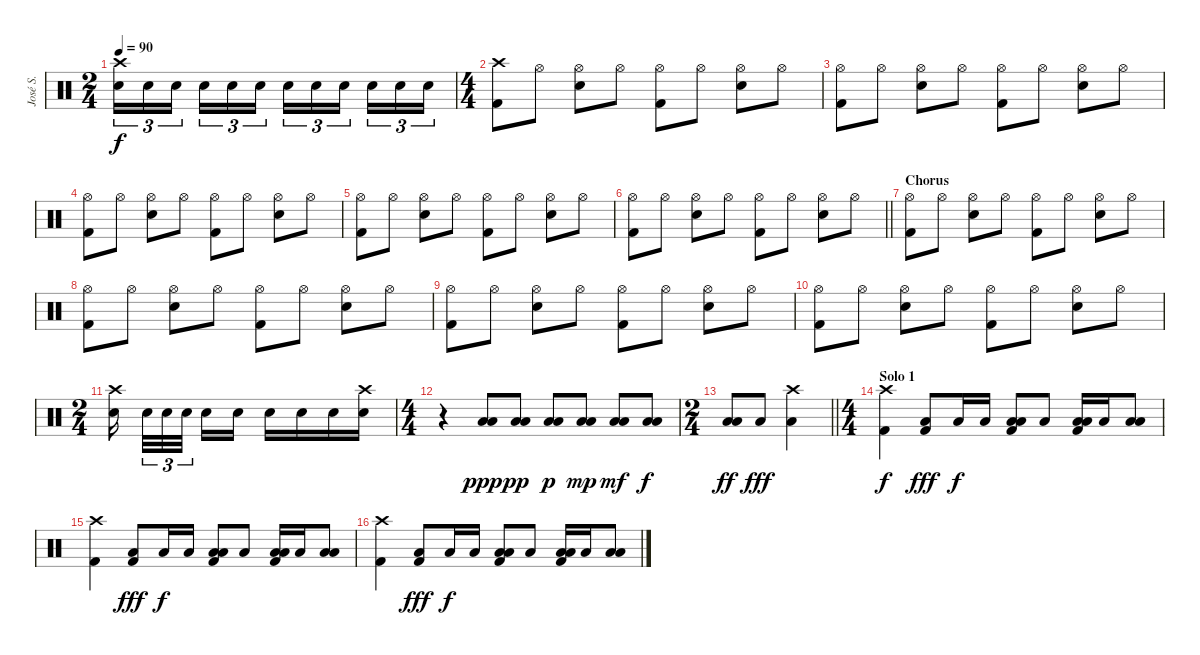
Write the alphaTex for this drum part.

\track ("José S." "José S.") {instrument percussion}
\staff {score}
\articulation defaults
\ts (2 4)
\tempo 90
\clef neutral
\ks c
("Crash high (hit)" "Electric Snare (hit)").16{tu (3 2) dy f} "Electric Snare (hit)".16{tu (3 2)} "Electric Snare (hit)".16{tu (3 2) beam splitsecondary} "Electric Snare (hit)".16{tu (3 2)} "Electric Snare (hit)".16{tu (3 2)} "Electric Snare (hit)".16{tu (3 2)} "Electric Snare (hit)".16{tu (3 2)} "Electric Snare (hit)".16{tu (3 2)} "Electric Snare (hit)".16{tu (3 2) beam splitsecondary} "Electric Snare (hit)".16{tu (3 2)} "Electric Snare (hit)".16{tu (3 2)} "Electric Snare (hit)".16{tu (3 2)} |
\ts (4 4)
("Crash high (hit)" "Kick (hit) 2").8 "Hi-Hat (open)".8 ("Hi-Hat (open)" "Electric Snare (hit)").8 "Hi-Hat (open)".8 ("Hi-Hat (open)" "Kick (hit) 2").8 "Hi-Hat (open)".8 ("Hi-Hat (open)" "Electric Snare (hit)").8 "Hi-Hat (open)".8 |
("Hi-Hat (open)" "Kick (hit) 2").8 "Hi-Hat (open)".8 ("Hi-Hat (open)" "Electric Snare (hit)").8 "Hi-Hat (open)".8 ("Hi-Hat (open)" "Kick (hit) 2").8 "Hi-Hat (open)".8 ("Hi-Hat (open)" "Electric Snare (hit)").8 "Hi-Hat (open)".8 |
("Hi-Hat (open)" "Kick (hit) 2").8 "Hi-Hat (open)".8 ("Hi-Hat (open)" "Electric Snare (hit)").8 "Hi-Hat (open)".8 ("Hi-Hat (open)" "Kick (hit) 2").8 "Hi-Hat (open)".8 ("Hi-Hat (open)" "Electric Snare (hit)").8 "Hi-Hat (open)".8 |
("Hi-Hat (open)" "Kick (hit) 2").8 "Hi-Hat (open)".8 ("Hi-Hat (open)" "Electric Snare (hit)").8 "Hi-Hat (open)".8 ("Hi-Hat (open)" "Kick (hit) 2").8 "Hi-Hat (open)".8 ("Hi-Hat (open)" "Electric Snare (hit)").8 "Hi-Hat (open)".8 |
\barLineRight lightlight
("Hi-Hat (open)" "Kick (hit) 2").8 "Hi-Hat (open)".8 ("Hi-Hat (open)" "Electric Snare (hit)").8 "Hi-Hat (open)".8 ("Hi-Hat (open)" "Kick (hit) 2").8 "Hi-Hat (open)".8 ("Hi-Hat (open)" "Electric Snare (hit)").8 "Hi-Hat (open)".8 |
\section ("" "Chorus")
("Hi-Hat (open)" "Kick (hit) 2").8 "Hi-Hat (open)".8 ("Hi-Hat (open)" "Electric Snare (hit)").8 "Hi-Hat (open)".8 ("Hi-Hat (open)" "Kick (hit) 2").8 "Hi-Hat (open)".8 ("Hi-Hat (open)" "Electric Snare (hit)").8 "Hi-Hat (open)".8 |
("Hi-Hat (open)" "Kick (hit) 2").8 "Hi-Hat (open)".8 ("Hi-Hat (open)" "Electric Snare (hit)").8 "Hi-Hat (open)".8 ("Hi-Hat (open)" "Kick (hit) 2").8 "Hi-Hat (open)".8 ("Hi-Hat (open)" "Electric Snare (hit)").8 "Hi-Hat (open)".8 |
("Hi-Hat (open)" "Kick (hit) 2").8 "Hi-Hat (open)".8 ("Hi-Hat (open)" "Electric Snare (hit)").8 "Hi-Hat (open)".8 ("Hi-Hat (open)" "Kick (hit) 2").8 "Hi-Hat (open)".8 ("Hi-Hat (open)" "Electric Snare (hit)").8 "Hi-Hat (open)".8 |
("Hi-Hat (open)" "Kick (hit) 2").8 "Hi-Hat (open)".8 ("Hi-Hat (open)" "Electric Snare (hit)").8 "Hi-Hat (open)".8 ("Hi-Hat (open)" "Kick (hit) 2").8 "Hi-Hat (open)".8 ("Hi-Hat (open)" "Electric Snare (hit)").8 "Hi-Hat (open)".8 |
\ts (2 4)
("Crash high (hit)" "Electric Snare (hit)").16{beam splitsecondary} "Electric Snare (hit)".32{tu (3 2)} "Electric Snare (hit)".32{tu (3 2)} "Electric Snare (hit)".32{tu (3 2) beam splitsecondary} "Electric Snare (hit)".16 "Electric Snare (hit)".16 "Electric Snare (hit)".16 "Electric Snare (hit)".16 "Electric Snare (hit)".16 ("Crash high (hit)" "Electric Snare (hit)").16 |
\ts (4 4)
r.4 ("Low Tom (hit)" "Low Floor Tom (hit)").8{dy ppp} ("Low Tom (hit)" "Low Floor Tom (hit)").8{dy pp} ("Low Tom (hit)" "Low Floor Tom (hit)").8{dy p} ("Low Tom (hit)" "Low Floor Tom (hit)").8{dy mp} ("Low Tom (hit)" "Low Floor Tom (hit)").8{dy mf} ("Low Tom (hit)" "Low Floor Tom (hit)").8{dy f} |
\ts (2 4)
\barLineRight lightlight
("Low Tom (hit)" "Low Floor Tom (hit)").8{dy ff} "Low Floor Tom (hit)".8{dy fff} ("Crash high (hit)" "Low Floor Tom (hit)").4 |
\ts (4 4)
\section ("" "Solo 1")
("Crash high (hit)" "Kick (hit) 2").4{dy f} ("Low Floor Tom (hit)" "Kick (hit) 2").8{dy fff} "Low Floor Tom (hit)".16{dy f} "Low Floor Tom (hit)".16 ("Low Tom (hit)" "Low Floor Tom (hit)" "Kick (hit) 2").8 "Low Floor Tom (hit)".8 ("Low Tom (hit)" "Low Floor Tom (hit)" "Kick (hit) 2").16 "Low Floor Tom (hit)".16 ("Low Tom (hit)" "Low Floor Tom (hit)").8 |
("Crash high (hit)" "Kick (hit) 2").4 ("Low Floor Tom (hit)" "Kick (hit) 2").8{dy fff} "Low Floor Tom (hit)".16{dy f} "Low Floor Tom (hit)".16 ("Low Tom (hit)" "Low Floor Tom (hit)" "Kick (hit) 2").8 "Low Floor Tom (hit)".8 ("Low Tom (hit)" "Low Floor Tom (hit)" "Kick (hit) 2").16 "Low Floor Tom (hit)".16 ("Low Tom (hit)" "Low Floor Tom (hit)").8 |
("Crash high (hit)" "Kick (hit) 2").4 ("Low Floor Tom (hit)" "Kick (hit) 2").8{dy fff} "Low Floor Tom (hit)".16{dy f} "Low Floor Tom (hit)".16 ("Low Tom (hit)" "Low Floor Tom (hit)" "Kick (hit) 2").8 "Low Floor Tom (hit)".8 ("Low Tom (hit)" "Low Floor Tom (hit)" "Kick (hit) 2").16 "Low Floor Tom (hit)".16 ("Low Tom (hit)" "Low Floor Tom (hit)").8
